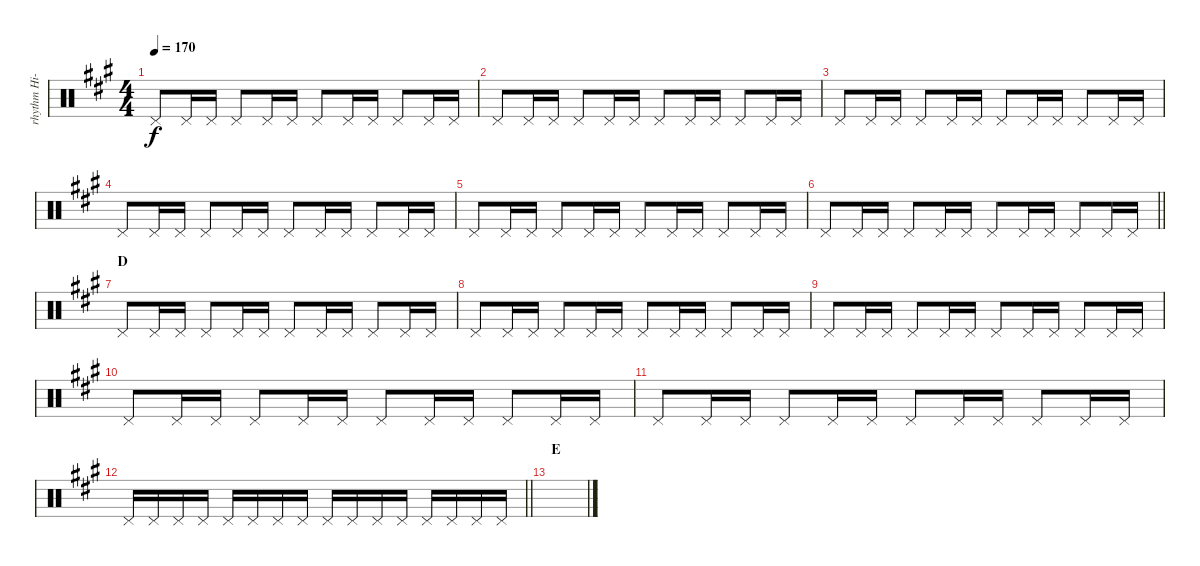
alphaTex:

\track ("rhythm Hi-hat" "rhythm Hi-") {instrument percussion}
\staff {score}
\articulation defaults
\ts (4 4)
\tempo 170
\clef neutral
\ks a "Pedal Hi-Hat (hit)".8{dy f} "Pedal Hi-Hat (hit)".16 "Pedal Hi-Hat (hit)".16 "Pedal Hi-Hat (hit)".8 "Pedal Hi-Hat (hit)".16 "Pedal Hi-Hat (hit)".16 "Pedal Hi-Hat (hit)".8 "Pedal Hi-Hat (hit)".16 "Pedal Hi-Hat (hit)".16 "Pedal Hi-Hat (hit)".8 "Pedal Hi-Hat (hit)".16 "Pedal Hi-Hat (hit)".16
|
"Pedal Hi-Hat (hit)".8 "Pedal Hi-Hat (hit)".16 "Pedal Hi-Hat (hit)".16 "Pedal Hi-Hat (hit)".8 "Pedal Hi-Hat (hit)".16 "Pedal Hi-Hat (hit)".16 "Pedal Hi-Hat (hit)".8 "Pedal Hi-Hat (hit)".16 "Pedal Hi-Hat (hit)".16 "Pedal Hi-Hat (hit)".8 "Pedal Hi-Hat (hit)".16 "Pedal Hi-Hat (hit)".16 |
"Pedal Hi-Hat (hit)".8 "Pedal Hi-Hat (hit)".16 "Pedal Hi-Hat (hit)".16 "Pedal Hi-Hat (hit)".8 "Pedal Hi-Hat (hit)".16 "Pedal Hi-Hat (hit)".16 "Pedal Hi-Hat (hit)".8 "Pedal Hi-Hat (hit)".16 "Pedal Hi-Hat (hit)".16 "Pedal Hi-Hat (hit)".8 "Pedal Hi-Hat (hit)".16 "Pedal Hi-Hat (hit)".16 |
"Pedal Hi-Hat (hit)".8 "Pedal Hi-Hat (hit)".16 "Pedal Hi-Hat (hit)".16 "Pedal Hi-Hat (hit)".8 "Pedal Hi-Hat (hit)".16 "Pedal Hi-Hat (hit)".16 "Pedal Hi-Hat (hit)".8 "Pedal Hi-Hat (hit)".16 "Pedal Hi-Hat (hit)".16 "Pedal Hi-Hat (hit)".8 "Pedal Hi-Hat (hit)".16 "Pedal Hi-Hat (hit)".16 |
"Pedal Hi-Hat (hit)".8 "Pedal Hi-Hat (hit)".16 "Pedal Hi-Hat (hit)".16 "Pedal Hi-Hat (hit)".8 "Pedal Hi-Hat (hit)".16 "Pedal Hi-Hat (hit)".16 "Pedal Hi-Hat (hit)".8 "Pedal Hi-Hat (hit)".16 "Pedal Hi-Hat (hit)".16 "Pedal Hi-Hat (hit)".8 "Pedal Hi-Hat (hit)".16 "Pedal Hi-Hat (hit)".16 |
\barLineRight lightlight "Pedal Hi-Hat (hit)".8 "Pedal Hi-Hat (hit)".16 "Pedal Hi-Hat (hit)".16 "Pedal Hi-Hat (hit)".8 "Pedal Hi-Hat (hit)".16 "Pedal Hi-Hat (hit)".16 "Pedal Hi-Hat (hit)".8 "Pedal Hi-Hat (hit)".16 "Pedal Hi-Hat (hit)".16 "Pedal Hi-Hat (hit)".8 "Pedal Hi-Hat (hit)".16 "Pedal Hi-Hat (hit)".16
|
\section ("" "D")
"Pedal Hi-Hat (hit)".8 "Pedal Hi-Hat (hit)".16 "Pedal Hi-Hat (hit)".16 "Pedal Hi-Hat (hit)".8 "Pedal Hi-Hat (hit)".16 "Pedal Hi-Hat (hit)".16 "Pedal Hi-Hat (hit)".8 "Pedal Hi-Hat (hit)".16 "Pedal Hi-Hat (hit)".16 "Pedal Hi-Hat (hit)".8 "Pedal Hi-Hat (hit)".16 "Pedal Hi-Hat (hit)".16 |
"Pedal Hi-Hat (hit)".8 "Pedal Hi-Hat (hit)".16 "Pedal Hi-Hat (hit)".16 "Pedal Hi-Hat (hit)".8 "Pedal Hi-Hat (hit)".16 "Pedal Hi-Hat (hit)".16 "Pedal Hi-Hat (hit)".8 "Pedal Hi-Hat (hit)".16 "Pedal Hi-Hat (hit)".16 "Pedal Hi-Hat (hit)".8 "Pedal Hi-Hat (hit)".16 "Pedal Hi-Hat (hit)".16 |
"Pedal Hi-Hat (hit)".8 "Pedal Hi-Hat (hit)".16 "Pedal Hi-Hat (hit)".16 "Pedal Hi-Hat (hit)".8 "Pedal Hi-Hat (hit)".16 "Pedal Hi-Hat (hit)".16 "Pedal Hi-Hat (hit)".8 "Pedal Hi-Hat (hit)".16 "Pedal Hi-Hat (hit)".16 "Pedal Hi-Hat (hit)".8 "Pedal Hi-Hat (hit)".16 "Pedal Hi-Hat (hit)".16 |
"Pedal Hi-Hat (hit)".8 "Pedal Hi-Hat (hit)".16 "Pedal Hi-Hat (hit)".16 "Pedal Hi-Hat (hit)".8 "Pedal Hi-Hat (hit)".16 "Pedal Hi-Hat (hit)".16 "Pedal Hi-Hat (hit)".8 "Pedal Hi-Hat (hit)".16 "Pedal Hi-Hat (hit)".16 "Pedal Hi-Hat (hit)".8 "Pedal Hi-Hat (hit)".16 "Pedal Hi-Hat (hit)".16 |
"Pedal Hi-Hat (hit)".8 "Pedal Hi-Hat (hit)".16 "Pedal Hi-Hat (hit)".16 "Pedal Hi-Hat (hit)".8 "Pedal Hi-Hat (hit)".16 "Pedal Hi-Hat (hit)".16 "Pedal Hi-Hat (hit)".8 "Pedal Hi-Hat (hit)".16 "Pedal Hi-Hat (hit)".16 "Pedal Hi-Hat (hit)".8 "Pedal Hi-Hat (hit)".16 "Pedal Hi-Hat (hit)".16 |
\barLineRight lightlight "Pedal Hi-Hat (hit)".16 "Pedal Hi-Hat (hit)".16 "Pedal Hi-Hat (hit)".16 "Pedal Hi-Hat (hit)".16 "Pedal Hi-Hat (hit)".16 "Pedal Hi-Hat (hit)".16 "Pedal Hi-Hat (hit)".16 "Pedal Hi-Hat (hit)".16 "Pedal Hi-Hat (hit)".16 "Pedal Hi-Hat (hit)".16 "Pedal Hi-Hat (hit)".16 "Pedal Hi-Hat (hit)".16 "Pedal Hi-Hat (hit)".16 "Pedal Hi-Hat (hit)".16 "Pedal Hi-Hat (hit)".16 "Pedal Hi-Hat (hit)".16
|
\section ("" "E")
